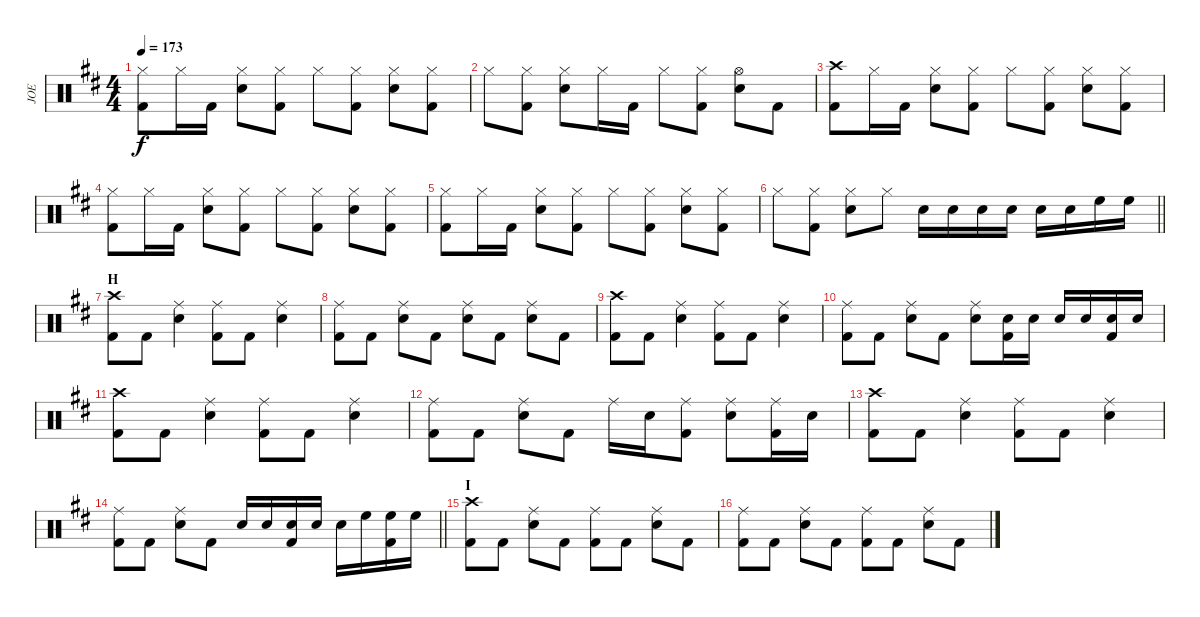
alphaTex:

\track ("JOE" "JOE") {instrument percussion}
\staff {score}
\articulation defaults
\ts (4 4)
\tempo 173
\clef neutral
\ks bminor
("Hi-Hat (closed)" "Kick (hit) 2").8{dy f} "Hi-Hat (closed)".16 "Kick (hit) 2".16 ("Hi-Hat (closed)" "Snare (hit) 2").8 ("Hi-Hat (closed)" "Kick (hit) 2").8 "Hi-Hat (closed)".8 ("Hi-Hat (closed)" "Kick (hit) 2").8 ("Hi-Hat (closed)" "Snare (hit) 2").8 ("Hi-Hat (closed)" "Kick (hit) 2").8 |
"Hi-Hat (closed)".8 ("Hi-Hat (closed)" "Kick (hit) 2").8 ("Hi-Hat (closed)" "Snare (hit) 2").8 "Hi-Hat (closed)".16 "Kick (hit) 2".16 "Hi-Hat (closed)".8 ("Hi-Hat (closed)" "Kick (hit) 2").8 ("Hi-Hat (open)" "Snare (hit) 2").8 "Kick (hit) 2".8 |
("Crash high (hit)" "Kick (hit) 2").8 "Hi-Hat (closed)".16 "Kick (hit) 2".16 ("Hi-Hat (closed)" "Snare (hit) 2").8 ("Hi-Hat (closed)" "Kick (hit) 2").8 "Hi-Hat (closed)".8 ("Hi-Hat (closed)" "Kick (hit) 2").8 ("Hi-Hat (closed)" "Snare (hit) 2").8 ("Hi-Hat (closed)" "Kick (hit) 2").8 |
("Hi-Hat (closed)" "Kick (hit) 2").8 "Hi-Hat (closed)".16 "Kick (hit) 2".16 ("Hi-Hat (closed)" "Snare (hit) 2").8 ("Hi-Hat (closed)" "Kick (hit) 2").8 "Hi-Hat (closed)".8 ("Hi-Hat (closed)" "Kick (hit) 2").8 ("Hi-Hat (closed)" "Snare (hit) 2").8 ("Hi-Hat (closed)" "Kick (hit) 2").8 |
("Hi-Hat (closed)" "Kick (hit) 2").8 "Hi-Hat (closed)".16 "Kick (hit) 2".16 ("Hi-Hat (closed)" "Snare (hit) 2").8 ("Hi-Hat (closed)" "Kick (hit) 2").8 "Hi-Hat (closed)".8 ("Hi-Hat (closed)" "Kick (hit) 2").8 ("Hi-Hat (closed)" "Snare (hit) 2").8 ("Hi-Hat (closed)" "Kick (hit) 2").8 |
\barLineRight lightlight "Hi-Hat (closed)".8
("Hi-Hat (closed)" "Kick (hit) 2").8 ("Hi-Hat (closed)" "Snare (hit) 2").8 "Hi-Hat (closed)".8 "Snare (hit) 2".16 "Snare (hit) 2".16 "Snare (hit) 2".16 "Snare (hit) 2".16 "Snare (hit) 2".16 "Snare (hit) 2".16 "High Floor Tom (hit)".16 "High Floor Tom (hit)".16 |
\section ("" "H")
("Crash high (hit)" "Kick (hit) 2").8 "Kick (hit) 2".8 ("Ride (middle)" "Snare (hit) 2").4 ("Ride (middle)" "Kick (hit) 2").8 "Kick (hit) 2".8 ("Ride (middle)" "Snare (hit) 2").4 |
("Ride (middle)" "Kick (hit) 2").8 "Kick (hit) 2".8 ("Ride (middle)" "Snare (hit) 2").8 "Kick (hit) 2".8 ("Ride (middle)" "Snare (hit) 2").8 "Kick (hit) 2".8 ("Ride (middle)" "Snare (hit) 2").8 "Kick (hit) 2".8 |
("Crash high (hit)" "Kick (hit) 2").8 "Kick (hit) 2".8 ("Ride (middle)" "Snare (hit) 2").4 ("Ride (middle)" "Kick (hit) 2").8 "Kick (hit) 2".8 ("Ride (middle)" "Snare (hit) 2").4 |
("Ride (middle)" "Kick (hit) 2").8 "Kick (hit) 2".8 ("Ride (middle)" "Snare (hit) 2").8 "Kick (hit) 2".8 ("Ride (middle)" "Snare (hit) 2").8 ("Snare (hit) 2" "Kick (hit) 2").16 "Snare (hit) 2".16 "Snare (hit) 2".16 "Snare (hit) 2".16 ("Snare (hit) 2" "Kick (hit) 2").16 "Snare (hit) 2".16 |
("Crash high (hit)" "Kick (hit) 2").8 "Kick (hit) 2".8 ("Ride (middle)" "Snare (hit) 2").4 ("Ride (middle)" "Kick (hit) 2").8 "Kick (hit) 2".8 ("Ride (middle)" "Snare (hit) 2").4 |
("Ride (middle)" "Kick (hit) 2").8 "Kick (hit) 2".8 ("Ride (middle)" "Snare (hit) 2").8 "Kick (hit) 2".8 "Ride (middle)".16 "Snare (hit) 2".16 ("Ride (middle)" "Kick (hit) 2").8 ("Ride (middle)" "Snare (hit) 2").8 ("Ride (middle)" "Kick (hit) 2").16 "Snare (hit) 2".16 |
("Crash high (hit)" "Kick (hit) 2").8 "Kick (hit) 2".8 ("Ride (middle)" "Snare (hit) 2").4 ("Ride (middle)" "Kick (hit) 2").8 "Kick (hit) 2".8 ("Ride (middle)" "Snare (hit) 2").4 |
\barLineRight lightlight
("Ride (middle)" "Kick (hit) 2").8 "Kick (hit) 2".8 ("Ride (middle)" "Snare (hit) 2").8 "Kick (hit) 2".8 "Snare (hit) 2".16 "Snare (hit) 2".16 ("Snare (hit) 2" "Kick (hit) 2").16 "Snare (hit) 2".16 "Snare (hit) 2".16 "High Floor Tom (hit)".16 ("High Floor Tom (hit)" "Kick (hit) 2").16 "High Floor Tom (hit)".16 |
\section ("" "I")
("Crash high (hit)" "Kick (hit) 2").8 "Kick (hit) 2".8 ("Ride (middle)" "Snare (hit) 2").8 "Kick (hit) 2".8 ("Ride (middle)" "Kick (hit) 2").8 "Kick (hit) 2".8 ("Ride (middle)" "Snare (hit) 2").8 "Kick (hit) 2".8 |
("Ride (middle)" "Kick (hit) 2").8 "Kick (hit) 2".8 ("Ride (middle)" "Snare (hit) 2").8 "Kick (hit) 2".8 ("Ride (middle)" "Kick (hit) 2").8 "Kick (hit) 2".8 ("Ride (middle)" "Snare (hit) 2").8 "Kick (hit) 2".8
